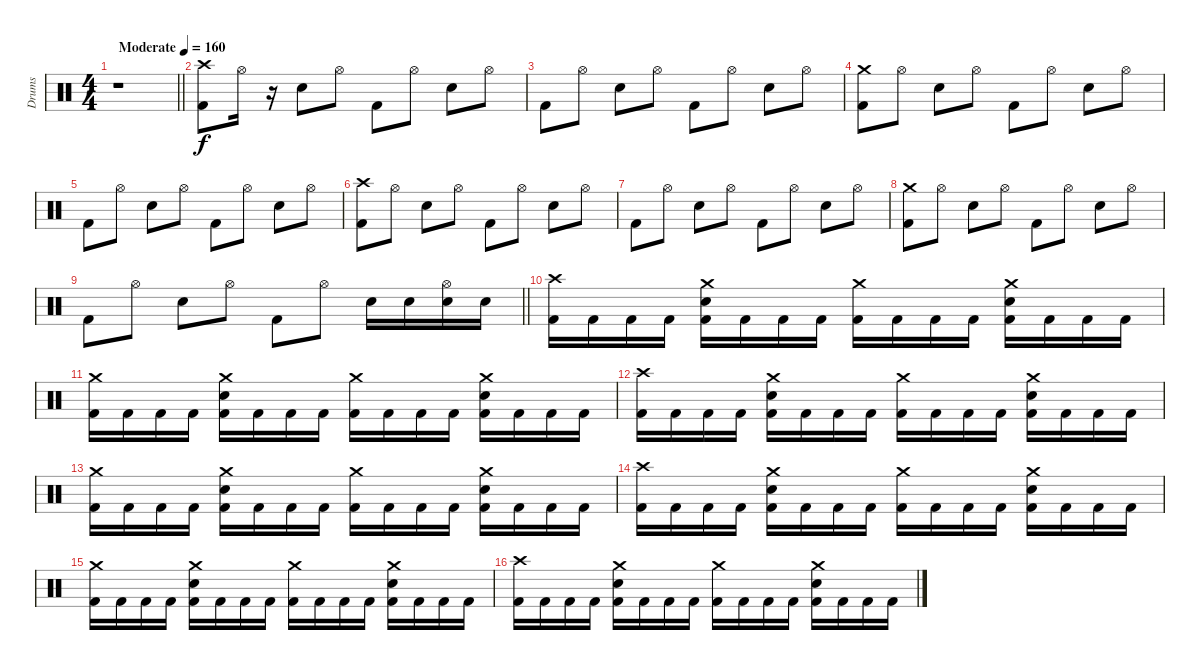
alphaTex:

\track ("Drums" "Drums") {instrument percussion}
\staff {score}
\articulation defaults
\ts (4 4)
\tempo (160 "Moderate")
\clef neutral
\barLineRight lightlight
\ks c
r.1{dy f} |
\section ("" " ")
("Kick (hit) 2" "Crash high (hit)").8 "Hi-Hat (open)".16 r.16 "Snare (hit) 2".8 "Hi-Hat (open)".8 "Kick (hit) 2".8 "Hi-Hat (open)".8 "Snare (hit) 2".8 "Hi-Hat (open)".8 |
"Kick (hit) 2".8 "Hi-Hat (open)".8 "Snare (hit) 2".8 "Hi-Hat (open)".8 "Kick (hit) 2".8 "Hi-Hat (open)".8 "Snare (hit) 2".8 "Hi-Hat (open)".8 |
("Kick (hit) 2" "Crash medium (hit)").8 "Hi-Hat (open)".8 "Snare (hit) 2".8 "Hi-Hat (open)".8 "Kick (hit) 2".8 "Hi-Hat (open)".8 "Snare (hit) 2".8 "Hi-Hat (open)".8 |
"Kick (hit) 2".8 "Hi-Hat (open)".8 "Snare (hit) 2".8 "Hi-Hat (open)".8 "Kick (hit) 2".8 "Hi-Hat (open)".8 "Snare (hit) 2".8 "Hi-Hat (open)".8 |
("Kick (hit) 2" "Crash high (hit)").8 "Hi-Hat (open)".8 "Snare (hit) 2".8 "Hi-Hat (open)".8 "Kick (hit) 2".8 "Hi-Hat (open)".8 "Snare (hit) 2".8 "Hi-Hat (open)".8 |
"Kick (hit) 2".8 "Hi-Hat (open)".8 "Snare (hit) 2".8 "Hi-Hat (open)".8 "Kick (hit) 2".8 "Hi-Hat (open)".8 "Snare (hit) 2".8 "Hi-Hat (open)".8 |
("Kick (hit) 2" "Crash medium (hit)").8 "Hi-Hat (open)".8 "Snare (hit) 2".8 "Hi-Hat (open)".8 "Kick (hit) 2".8 "Hi-Hat (open)".8 "Snare (hit) 2".8 "Hi-Hat (open)".8 |
\barLineRight lightlight "Kick (hit) 2".8 "Hi-Hat (open)".8 "Snare (hit) 2".8 "Hi-Hat (open)".8 "Kick (hit) 2".8 "Hi-Hat (open)".8 "Snare (hit) 2".16 "Snare (hit) 2".16
("Snare (hit) 2" "Hi-Hat (open)").16 "Snare (hit) 2".16 |
\section ("" " ")
("Kick (hit) 2" "Crash high (hit)").16 "Kick (hit) 2".16 "Kick (hit) 2".16 "Kick (hit) 2".16 ("Kick (hit) 2" "Snare (hit) 2" "Crash medium (hit)").16 "Kick (hit) 2".16 "Kick (hit) 2".16 "Kick (hit) 2".16 ("Kick (hit) 2" "Crash medium (hit)").16 "Kick (hit) 2".16 "Kick (hit) 2".16 "Kick (hit) 2".16 ("Kick (hit) 2" "Snare (hit) 2" "Crash medium (hit)").16 "Kick (hit) 2".16 "Kick (hit) 2".16 "Kick (hit) 2".16 |
("Kick (hit) 2" "Crash medium (hit)").16 "Kick (hit) 2".16 "Kick (hit) 2".16 "Kick (hit) 2".16 ("Kick (hit) 2" "Snare (hit) 2" "Crash medium (hit)").16 "Kick (hit) 2".16 "Kick (hit) 2".16 "Kick (hit) 2".16 ("Kick (hit) 2" "Crash medium (hit)").16 "Kick (hit) 2".16 "Kick (hit) 2".16 "Kick (hit) 2".16 ("Kick (hit) 2" "Snare (hit) 2" "Crash medium (hit)").16 "Kick (hit) 2".16 "Kick (hit) 2".16 "Kick (hit) 2".16 |
("Kick (hit) 2" "Crash high (hit)").16 "Kick (hit) 2".16 "Kick (hit) 2".16 "Kick (hit) 2".16 ("Kick (hit) 2" "Snare (hit) 2" "Crash medium (hit)").16 "Kick (hit) 2".16 "Kick (hit) 2".16 "Kick (hit) 2".16 ("Kick (hit) 2" "Crash medium (hit)").16 "Kick (hit) 2".16 "Kick (hit) 2".16 "Kick (hit) 2".16 ("Kick (hit) 2" "Snare (hit) 2" "Crash medium (hit)").16 "Kick (hit) 2".16 "Kick (hit) 2".16 "Kick (hit) 2".16 |
("Kick (hit) 2" "Crash medium (hit)").16 "Kick (hit) 2".16 "Kick (hit) 2".16 "Kick (hit) 2".16 ("Kick (hit) 2" "Snare (hit) 2" "Crash medium (hit)").16 "Kick (hit) 2".16 "Kick (hit) 2".16 "Kick (hit) 2".16 ("Kick (hit) 2" "Crash medium (hit)").16 "Kick (hit) 2".16 "Kick (hit) 2".16 "Kick (hit) 2".16 ("Kick (hit) 2" "Snare (hit) 2" "Crash medium (hit)").16 "Kick (hit) 2".16 "Kick (hit) 2".16 "Kick (hit) 2".16 |
("Kick (hit) 2" "Crash high (hit)").16 "Kick (hit) 2".16 "Kick (hit) 2".16 "Kick (hit) 2".16 ("Kick (hit) 2" "Snare (hit) 2" "Crash medium (hit)").16 "Kick (hit) 2".16 "Kick (hit) 2".16 "Kick (hit) 2".16 ("Kick (hit) 2" "Crash medium (hit)").16 "Kick (hit) 2".16 "Kick (hit) 2".16 "Kick (hit) 2".16 ("Kick (hit) 2" "Snare (hit) 2" "Crash medium (hit)").16 "Kick (hit) 2".16 "Kick (hit) 2".16 "Kick (hit) 2".16 |
("Kick (hit) 2" "Crash medium (hit)").16 "Kick (hit) 2".16 "Kick (hit) 2".16 "Kick (hit) 2".16 ("Kick (hit) 2" "Snare (hit) 2" "Crash medium (hit)").16 "Kick (hit) 2".16 "Kick (hit) 2".16 "Kick (hit) 2".16 ("Kick (hit) 2" "Crash medium (hit)").16 "Kick (hit) 2".16 "Kick (hit) 2".16 "Kick (hit) 2".16 ("Kick (hit) 2" "Snare (hit) 2" "Crash medium (hit)").16 "Kick (hit) 2".16 "Kick (hit) 2".16 "Kick (hit) 2".16 |
("Kick (hit) 2" "Crash high (hit)").16 "Kick (hit) 2".16 "Kick (hit) 2".16 "Kick (hit) 2".16 ("Kick (hit) 2" "Snare (hit) 2" "Crash medium (hit)").16 "Kick (hit) 2".16 "Kick (hit) 2".16 "Kick (hit) 2".16 ("Kick (hit) 2" "Crash medium (hit)").16 "Kick (hit) 2".16 "Kick (hit) 2".16 "Kick (hit) 2".16 ("Kick (hit) 2" "Snare (hit) 2" "Crash medium (hit)").16 "Kick (hit) 2".16 "Kick (hit) 2".16 "Kick (hit) 2".16
